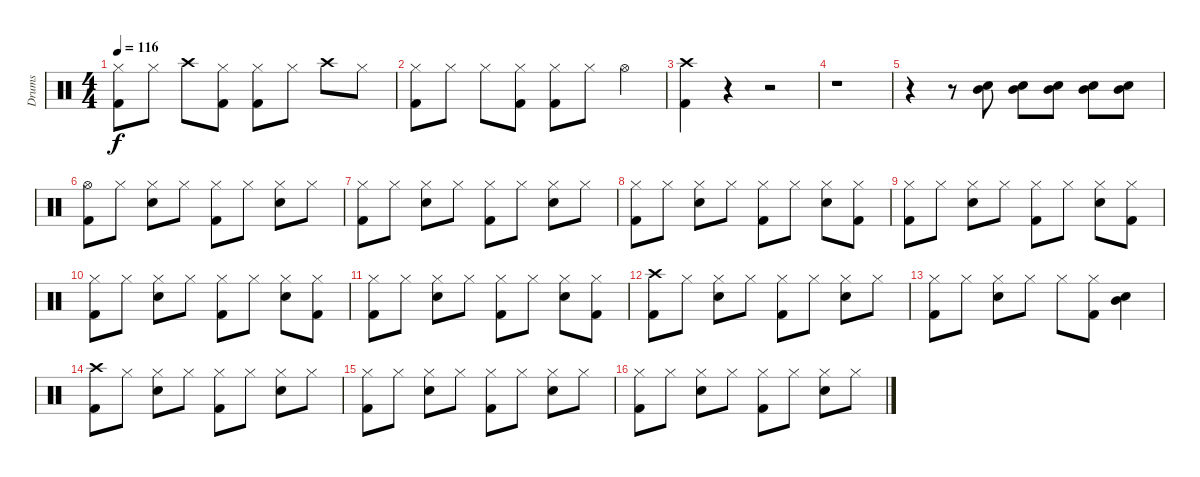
\track ("Drums" "Drums") {instrument percussion}
\staff {score}
\articulation defaults
\ts (4 4)
\tempo 116
\clef neutral
\ks c
("Hi-Hat (closed)" "Kick (hit) 2").8{dy f} "Hi-Hat (closed)".8 "Crash high (hit)".8 ("Hi-Hat (closed)" "Kick (hit) 2").8 ("Hi-Hat (closed)" "Kick (hit) 2").8 "Hi-Hat (closed)".8 "Crash high (hit)".8 "Hi-Hat (closed)".8 |
("Hi-Hat (closed)" "Kick (hit) 2").8 "Hi-Hat (closed)".8 "Hi-Hat (closed)".8 ("Hi-Hat (closed)" "Kick (hit) 2").8 ("Hi-Hat (closed)" "Kick (hit) 2").8 "Hi-Hat (closed)".8 "Hi-Hat (open)".4 |
("Crash high (hit)" "Kick (hit) 2").4 r.4 r.2 |
r.1 |
r.4 r.8 ("Snare (hit) 2" "Mid Tom (hit)").8 ("Snare (hit) 2" "Mid Tom (hit)").8 ("Snare (hit) 2" "Mid Tom (hit)").8 ("Snare (hit) 2" "Mid Tom (hit)").8 ("Snare (hit) 2" "Mid Tom (hit)").8 |
("Hi-Hat (open)" "Kick (hit) 2").8 "Hi-Hat (closed)".8 ("Hi-Hat (closed)" "Snare (hit) 2").8 "Hi-Hat (closed)".8 ("Hi-Hat (closed)" "Kick (hit) 2").8 "Hi-Hat (closed)".8 ("Hi-Hat (closed)" "Snare (hit) 2").8 "Hi-Hat (closed)".8 |
("Hi-Hat (closed)" "Kick (hit) 2").8 "Hi-Hat (closed)".8 ("Hi-Hat (closed)" "Snare (hit) 2").8 "Hi-Hat (closed)".8 ("Hi-Hat (closed)" "Kick (hit) 2").8 "Hi-Hat (closed)".8 ("Hi-Hat (closed)" "Snare (hit) 2").8 "Hi-Hat (closed)".8 |
("Hi-Hat (closed)" "Kick (hit) 2").8 "Hi-Hat (closed)".8 ("Hi-Hat (closed)" "Snare (hit) 2").8 "Hi-Hat (closed)".8 ("Hi-Hat (closed)" "Kick (hit) 2").8 "Hi-Hat (closed)".8 ("Hi-Hat (closed)" "Snare (hit) 2").8 ("Hi-Hat (closed)" "Kick (hit) 2").8 |
("Hi-Hat (closed)" "Kick (hit) 2").8 "Hi-Hat (closed)".8 ("Hi-Hat (closed)" "Snare (hit) 2").8 "Hi-Hat (closed)".8 ("Hi-Hat (closed)" "Kick (hit) 2").8 "Hi-Hat (closed)".8 ("Hi-Hat (closed)" "Snare (hit) 2").8 ("Hi-Hat (closed)" "Kick (hit) 2").8 |
("Hi-Hat (closed)" "Kick (hit) 2").8 "Hi-Hat (closed)".8 ("Hi-Hat (closed)" "Snare (hit) 2").8 "Hi-Hat (closed)".8 ("Hi-Hat (closed)" "Kick (hit) 2").8 "Hi-Hat (closed)".8 ("Hi-Hat (closed)" "Snare (hit) 2").8 ("Hi-Hat (closed)" "Kick (hit) 2").8 |
("Hi-Hat (closed)" "Kick (hit) 2").8 "Hi-Hat (closed)".8 ("Hi-Hat (closed)" "Snare (hit) 2").8 "Hi-Hat (closed)".8 ("Hi-Hat (closed)" "Kick (hit) 2").8 "Hi-Hat (closed)".8 ("Hi-Hat (closed)" "Snare (hit) 2").8 ("Hi-Hat (closed)" "Kick (hit) 2").8 |
("Crash high (hit)" "Kick (hit) 2").8 "Hi-Hat (closed)".8 ("Hi-Hat (closed)" "Snare (hit) 2").8 "Hi-Hat (closed)".8 ("Hi-Hat (closed)" "Kick (hit) 2").8 "Hi-Hat (closed)".8 ("Hi-Hat (closed)" "Snare (hit) 2").8 "Hi-Hat (closed)".8 |
("Hi-Hat (closed)" "Kick (hit) 2").8 "Hi-Hat (closed)".8 ("Hi-Hat (closed)" "Snare (hit) 2").8 "Hi-Hat (closed)".8 "Hi-Hat (closed)".8 ("Hi-Hat (closed)" "Kick (hit) 2").8 ("Snare (hit) 2" "Mid Tom (hit)").4 |
("Crash high (hit)" "Kick (hit) 2").8 "Hi-Hat (closed)".8 ("Hi-Hat (closed)" "Snare (hit) 2").8 "Hi-Hat (closed)".8 ("Hi-Hat (closed)" "Kick (hit) 2").8 "Hi-Hat (closed)".8 ("Hi-Hat (closed)" "Snare (hit) 2").8 "Hi-Hat (closed)".8 |
("Hi-Hat (closed)" "Kick (hit) 2").8 "Hi-Hat (closed)".8 ("Hi-Hat (closed)" "Snare (hit) 2").8 "Hi-Hat (closed)".8 ("Hi-Hat (closed)" "Kick (hit) 2").8 "Hi-Hat (closed)".8 ("Hi-Hat (closed)" "Snare (hit) 2").8 "Hi-Hat (closed)".8 |
("Hi-Hat (closed)" "Kick (hit) 2").8 "Hi-Hat (closed)".8 ("Hi-Hat (closed)" "Snare (hit) 2").8 "Hi-Hat (closed)".8 ("Hi-Hat (closed)" "Kick (hit) 2").8 "Hi-Hat (closed)".8 ("Hi-Hat (closed)" "Snare (hit) 2").8 "Hi-Hat (closed)".8
